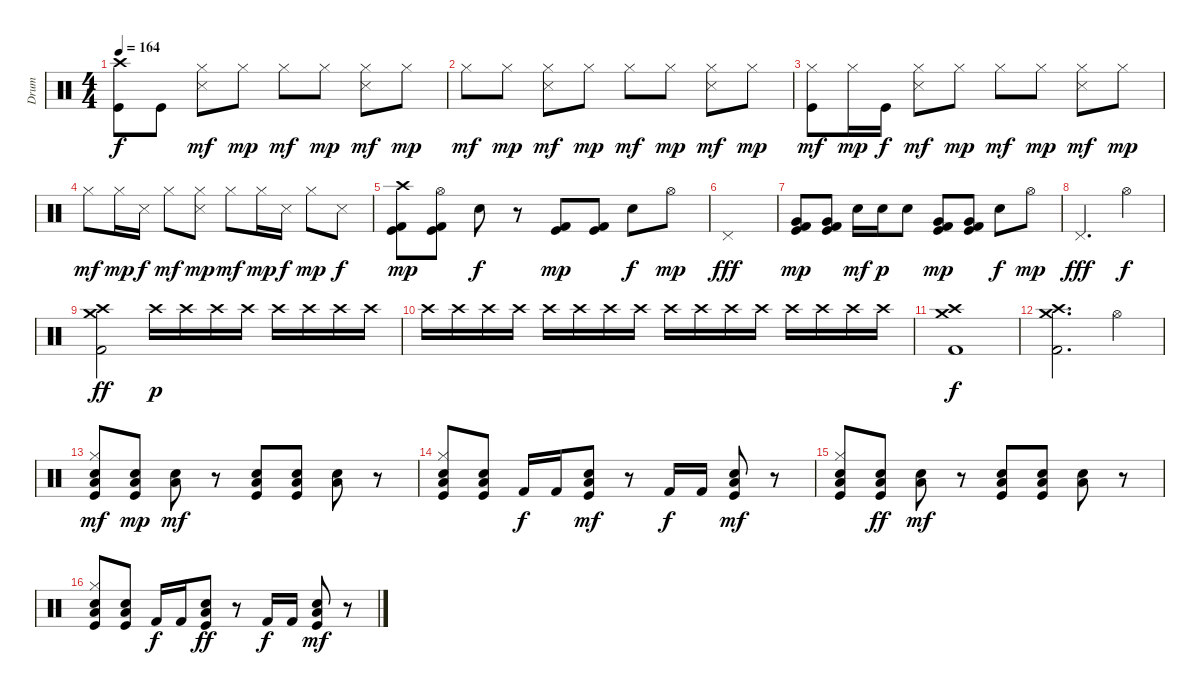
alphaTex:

\track ("Drum" "Drum") {instrument percussion}
\staff {score}
\articulation defaults
\ts (4 4)
\tempo 164
\clef neutral
\ks c
("Crash high (hit)" "Kick (hit)").8{dy f} "Kick (hit)".8 ("Snare (side stick) 3" "Hi-Hat (closed)").8{dy mf} "Hi-Hat (closed)".8{dy mp} "Hi-Hat (closed)".8{dy mf} "Hi-Hat (closed)".8{dy mp} ("Snare (side stick) 3" "Hi-Hat (closed)").8{dy mf} "Hi-Hat (closed)".8{dy mp} |
"Hi-Hat (closed)".8{dy mf} "Hi-Hat (closed)".8{dy mp} ("Snare (side stick) 3" "Hi-Hat (closed)").8{dy mf} "Hi-Hat (closed)".8{dy mp} "Hi-Hat (closed)".8{dy mf} "Hi-Hat (closed)".8{dy mp} ("Snare (side stick) 3" "Hi-Hat (closed)").8{dy mf} "Hi-Hat (closed)".8{dy mp} |
("Hi-Hat (closed)" "Kick (hit)").8{dy mf} "Hi-Hat (closed)".16{dy mp} "Kick (hit)".16{dy f} ("Snare (side stick) 3" "Hi-Hat (closed)").8{dy mf} "Hi-Hat (closed)".8{dy mp} "Hi-Hat (closed)".8{dy mf} "Hi-Hat (closed)".8{dy mp} ("Snare (side stick) 3" "Hi-Hat (closed)").8{dy mf} "Hi-Hat (closed)".8{dy mp} |
"Hi-Hat (closed)".8{dy mf} "Hi-Hat (closed)".16{dy mp} "Snare (side stick) 3".16{dy f} "Hi-Hat (closed)".8{dy mf} ("Snare (side stick) 3" "Hi-Hat (closed)").8{dy mp} "Hi-Hat (closed)".8{dy mf} "Hi-Hat (closed)".16{dy mp} "Snare (side stick) 3".16{dy f} "Hi-Hat (closed)".8{dy mp} "Snare (side stick) 3".8{dy f} |
("Crash high (hit)" "Kick (hit)" "Kick (hit) 2").8{dy mp} ("Hi-Hat (open)" "Kick (hit)" "Kick (hit) 2").8 "Electric Snare (hit)".8{dy f} r.8 ("Kick (hit)" "Kick (hit) 2").8{dy mp} ("Kick (hit)" "Kick (hit) 2").8 "Electric Snare (hit)".8{dy f} "Hi-Hat (open)".8{dy mp} |
"Pedal Hi-Hat (hit)".1{dy fff} |
("Very Low Tom (hit)" "Kick (hit)" "Kick (hit) 2").8{dy mp} ("Very Low Tom (hit)" "Kick (hit)" "Kick (hit) 2").8 "Electric Snare (hit)".16{dy mf} "Electric Snare (hit)".16{dy p} "Electric Snare (hit)".8 ("Very Low Tom (hit)" "Kick (hit)" "Kick (hit) 2").8{dy mp} ("Very Low Tom (hit)" "Kick (hit)" "Kick (hit) 2").8 "Electric Snare (hit)".8{dy f} "Hi-Hat (open)".8{dy mp} |
"Pedal Hi-Hat (hit)".2{d dy fff} "Hi-Hat (open)".4{dy f} |
("Crash high (hit)" "Crash medium (hit)" "Kick (hit) 2").2{dy ff} "Crash high (hit)".16{dy p} "Crash high (hit)".16 "Crash high (hit)".16 "Crash high (hit)".16 "Crash high (hit)".16 "Crash high (hit)".16 "Crash high (hit)".16 "Crash high (hit)".16 |
"Crash high (hit)".16 "Crash high (hit)".16 "Crash high (hit)".16 "Crash high (hit)".16 "Crash high (hit)".16 "Crash high (hit)".16 "Crash high (hit)".16 "Crash high (hit)".16 "Crash high (hit)".16 "Crash high (hit)".16 "Crash high (hit)".16 "Crash high (hit)".16 "Crash high (hit)".16 "Crash high (hit)".16 "Crash high (hit)".16 "Crash high (hit)".16 |
("Crash high (hit)" "Crash medium (hit)" "Kick (hit) 2").1{dy f} |
("Crash high (hit)" "Crash medium (hit)" "Kick (hit) 2").2{d} "Hi-Hat (open)".4 |
("Hi-Hat (closed)" "Low Tom (hit)" "Electric Snare (hit)" "Kick (hit)").8{dy mf} ("Low Tom (hit)" "Electric Snare (hit)" "Kick (hit)").8{dy mp} ("Low Tom (hit)" "Electric Snare (hit)").8{dy mf} r.8 ("Low Tom (hit)" "Electric Snare (hit)" "Kick (hit)").8 ("Low Tom (hit)" "Electric Snare (hit)" "Kick (hit)").8 ("Low Tom (hit)" "Electric Snare (hit)").8 r.8 |
("Hi-Hat (closed)" "Low Tom (hit)" "Electric Snare (hit)" "Kick (hit)").8 ("Low Tom (hit)" "Electric Snare (hit)" "Kick (hit)").8 "Kick (hit) 2".16{dy f} "Kick (hit) 2".16 ("Low Tom (hit)" "Electric Snare (hit)" "Kick (hit)").8{dy mf} r.8 "Kick (hit) 2".16{dy f} "Kick (hit) 2".16 ("Low Tom (hit)" "Electric Snare (hit)" "Kick (hit)").8{dy mf} r.8 |
("Hi-Hat (closed)" "Low Tom (hit)" "Electric Snare (hit)" "Kick (hit)").8 ("Low Tom (hit)" "Electric Snare (hit)" "Kick (hit)").8{dy ff} ("Low Tom (hit)" "Electric Snare (hit)").8{dy mf} r.8 ("Low Tom (hit)" "Electric Snare (hit)" "Kick (hit)").8 ("Low Tom (hit)" "Electric Snare (hit)" "Kick (hit)").8 ("Low Tom (hit)" "Electric Snare (hit)").8 r.8 |
("Hi-Hat (closed)" "Low Tom (hit)" "Electric Snare (hit)" "Kick (hit)").8 ("Low Tom (hit)" "Electric Snare (hit)" "Kick (hit)").8 "Kick (hit) 2".16{dy f} "Kick (hit) 2".16 ("Low Tom (hit)" "Electric Snare (hit)" "Kick (hit)").8{dy ff} r.8 "Kick (hit) 2".16{dy f} "Kick (hit) 2".16 ("Low Tom (hit)" "Electric Snare (hit)" "Kick (hit)").8{dy mf} r.8
